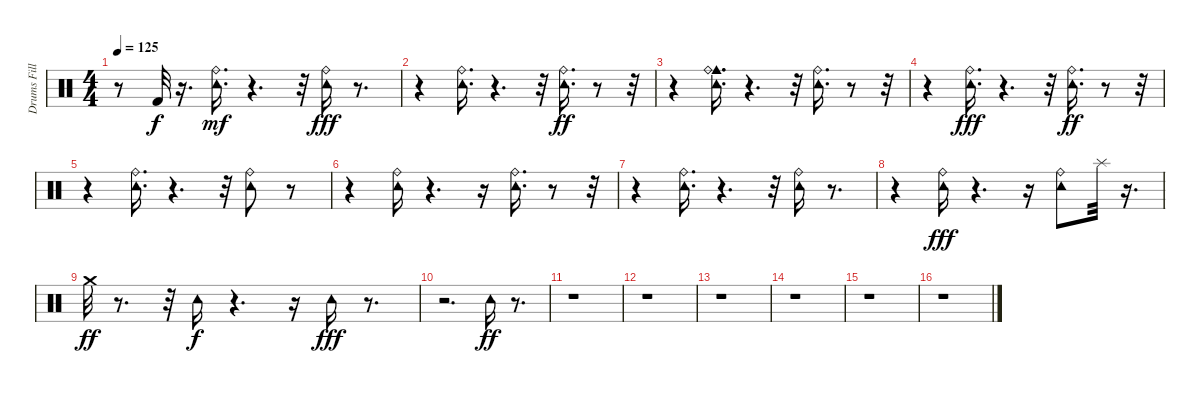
\track ("Drums Fill" "Drums Fill") {instrument percussion}
\staff {score}
\articulation defaults
\ts (4 4)
\tempo 125
\clef neutral
\ks c
r.8{dy fff} "Kick (hit) 2".32{dy f} r.16{d} ("Ride (bell)" "Tambourine (hit)").16{d dy mf} r.4{d} r.32 ("Tambourine (hit)" "Ride (bell)").16{dy fff} r.8{d} |
r.4 ("Ride (bell)" "Tambourine (hit)").16{d} r.4{d} r.32 ("Tambourine (hit)" "Ride (bell)").16{d dy ff} r.8 r.32 |
r.4 ("Tambourine (hit)" "Cowbell medium (hit)" "Ride (bell)").16{d} r.4{d} r.32 ("Tambourine (hit)" "Ride (bell)").16{d} r.8 r.32 |
r.4 ("Tambourine (hit)" "Ride (bell)").16{d dy fff} r.4{d} r.32 ("Tambourine (hit)" "Ride (bell)").16{d dy ff} r.8 r.32 |
r.4 ("Tambourine (hit)" "Ride (bell)").16{d} r.4{d} r.32 ("Tambourine (hit)" "Ride (bell)").8 r.8 |
r.4 ("Tambourine (hit)" "Ride (bell)").16 r.4{d} r.16 ("Tambourine (hit)" "Ride (bell)").16{d} r.8 r.32 |
r.4 ("Tambourine (hit)" "Ride (bell)").16{d} r.4{d} r.32 ("Tambourine (hit)" "Ride (bell)").16 r.8{d} |
r.4 ("Ride (bell)" "Tambourine (hit)").16{dy fff} r.4{d} r.16 ("Tambourine (hit)" "Ride (bell)").8 "Splash (hit)".32 r.16{d} |
"Crash medium (hit)".32{dy ff} r.8{d} r.32 "Tambourine (hit)".16{dy f} r.4{d} r.16 "Tambourine (hit)".16{dy fff} r.8{d} |
r.2{d} "Tambourine (hit)".16{dy ff} r.8{d} |
r.1 |
r.1 |
r.1 |
r.1 |
r.1 |
r.1
